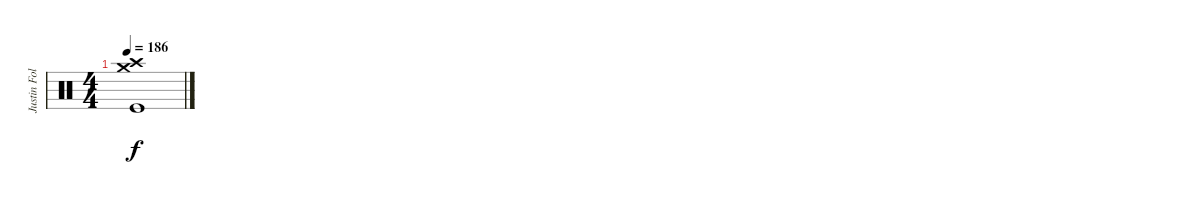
\track ("Justin Foley" "Justin Fol") {instrument percussion}
\staff {score}
\articulation defaults
\ts (4 4)
\tempo 186
\clef neutral
\ks c
("Crash medium (hit)" "Crash high (hit)" "Kick (hit)").1{dy f}
